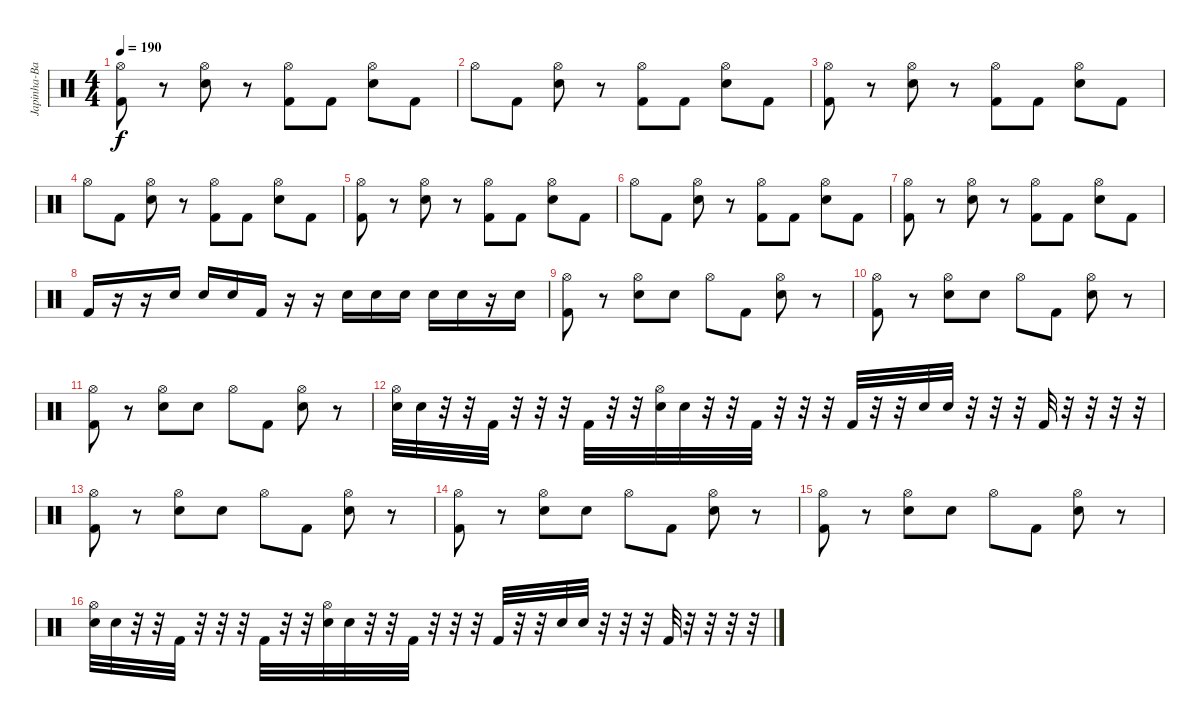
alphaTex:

\track ("Japinha-Batera" "Japinha-Ba") {instrument percussion}
\staff {score}
\articulation defaults
\ts (4 4)
\tempo 190
\clef neutral
\ks c
("Hi-Hat (open)" "Kick (hit) 2").8{dy f} r.8 ("Hi-Hat (open)" "Electric Snare (hit)").8 r.8 ("Hi-Hat (open)" "Kick (hit) 2").8 "Kick (hit) 2".8 ("Hi-Hat (open)" "Electric Snare (hit)").8 "Kick (hit) 2".8 |
"Hi-Hat (open)".8 "Kick (hit) 2".8 ("Hi-Hat (open)" "Electric Snare (hit)").8 r.8 ("Hi-Hat (open)" "Kick (hit) 2").8 "Kick (hit) 2".8 ("Hi-Hat (open)" "Electric Snare (hit)").8 "Kick (hit) 2".8 |
("Hi-Hat (open)" "Kick (hit) 2").8 r.8 ("Hi-Hat (open)" "Electric Snare (hit)").8 r.8 ("Hi-Hat (open)" "Kick (hit) 2").8 "Kick (hit) 2".8 ("Hi-Hat (open)" "Electric Snare (hit)").8 "Kick (hit) 2".8 |
"Hi-Hat (open)".8 "Kick (hit) 2".8 ("Hi-Hat (open)" "Electric Snare (hit)").8 r.8 ("Hi-Hat (open)" "Kick (hit) 2").8 "Kick (hit) 2".8 ("Hi-Hat (open)" "Electric Snare (hit)").8 "Kick (hit) 2".8 |
("Hi-Hat (open)" "Kick (hit) 2").8 r.8 ("Hi-Hat (open)" "Electric Snare (hit)").8 r.8 ("Hi-Hat (open)" "Kick (hit) 2").8 "Kick (hit) 2".8 ("Hi-Hat (open)" "Electric Snare (hit)").8 "Kick (hit) 2".8 |
"Hi-Hat (open)".8 "Kick (hit) 2".8 ("Hi-Hat (open)" "Electric Snare (hit)").8 r.8 ("Hi-Hat (open)" "Kick (hit) 2").8 "Kick (hit) 2".8 ("Hi-Hat (open)" "Electric Snare (hit)").8 "Kick (hit) 2".8 |
("Hi-Hat (open)" "Kick (hit) 2").8 r.8 ("Hi-Hat (open)" "Electric Snare (hit)").8 r.8 ("Hi-Hat (open)" "Kick (hit) 2").8 "Kick (hit) 2".8 ("Hi-Hat (open)" "Electric Snare (hit)").8 "Kick (hit) 2".8 |
"Kick (hit) 2".16 r.16 r.16 "Electric Snare (hit)".16 "Electric Snare (hit)".16 "Electric Snare (hit)".16 "Kick (hit) 2".16 r.16 r.16 "Electric Snare (hit)".16 "Electric Snare (hit)".16 "Electric Snare (hit)".16 "Electric Snare (hit)".16 "Electric Snare (hit)".16 r.16 "Electric Snare (hit)".16 |
("Hi-Hat (open)" "Kick (hit) 2").8 r.8 ("Hi-Hat (open)" "Electric Snare (hit)").8 "Electric Snare (hit)".8 "Hi-Hat (open)".8 "Kick (hit) 2".8 ("Hi-Hat (open)" "Electric Snare (hit)").8 r.8 |
("Hi-Hat (open)" "Kick (hit) 2").8 r.8 ("Hi-Hat (open)" "Electric Snare (hit)").8 "Electric Snare (hit)".8 "Hi-Hat (open)".8 "Kick (hit) 2".8 ("Hi-Hat (open)" "Electric Snare (hit)").8 r.8 |
("Hi-Hat (open)" "Kick (hit) 2").8 r.8 ("Hi-Hat (open)" "Electric Snare (hit)").8 "Electric Snare (hit)".8 "Hi-Hat (open)".8 "Kick (hit) 2".8 ("Hi-Hat (open)" "Electric Snare (hit)").8 r.8 |
("Hi-Hat (open)" "Electric Snare (hit)").32 "Electric Snare (hit)".32 r.32 r.32 "Kick (hit) 2".32 r.32 r.32 r.32 "Kick (hit) 2".32 r.32 r.32 ("Hi-Hat (open)" "Electric Snare (hit)").32 "Electric Snare (hit)".32 r.32 r.32 "Kick (hit) 2".32 r.32 r.32 r.32 "Kick (hit) 2".32 r.32 r.32 "Electric Snare (hit)".32 "Electric Snare (hit)".32 r.32 r.32 r.32 "Kick (hit) 2".32 r.32 r.32 r.32 r.32 |
("Hi-Hat (open)" "Kick (hit) 2").8 r.8 ("Hi-Hat (open)" "Electric Snare (hit)").8 "Electric Snare (hit)".8 "Hi-Hat (open)".8 "Kick (hit) 2".8 ("Hi-Hat (open)" "Electric Snare (hit)").8 r.8 |
("Hi-Hat (open)" "Kick (hit) 2").8 r.8 ("Hi-Hat (open)" "Electric Snare (hit)").8 "Electric Snare (hit)".8 "Hi-Hat (open)".8 "Kick (hit) 2".8 ("Hi-Hat (open)" "Electric Snare (hit)").8 r.8 |
("Hi-Hat (open)" "Kick (hit) 2").8 r.8 ("Hi-Hat (open)" "Electric Snare (hit)").8 "Electric Snare (hit)".8 "Hi-Hat (open)".8 "Kick (hit) 2".8 ("Hi-Hat (open)" "Electric Snare (hit)").8 r.8 |
("Hi-Hat (open)" "Electric Snare (hit)").32 "Electric Snare (hit)".32 r.32 r.32 "Kick (hit) 2".32 r.32 r.32 r.32 "Kick (hit) 2".32 r.32 r.32 ("Hi-Hat (open)" "Electric Snare (hit)").32 "Electric Snare (hit)".32 r.32 r.32 "Kick (hit) 2".32 r.32 r.32 r.32 "Kick (hit) 2".32 r.32 r.32 "Electric Snare (hit)".32 "Electric Snare (hit)".32 r.32 r.32 r.32 "Kick (hit) 2".32 r.32 r.32 r.32 r.32
